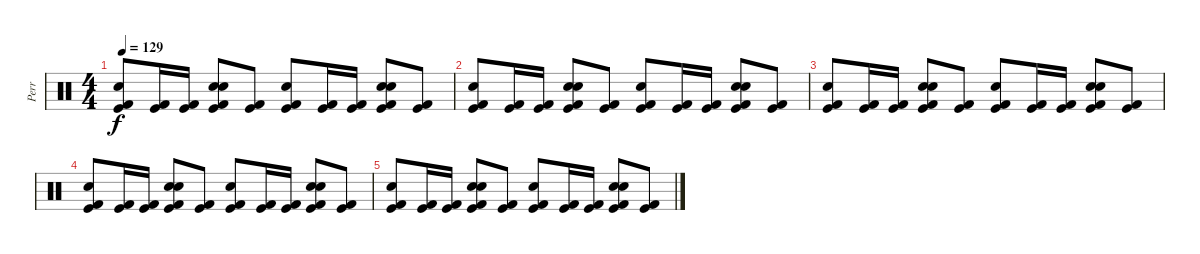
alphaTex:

\track ("Perr" "Perr") {instrument percussion}
\staff {score}
\articulation defaults
\ts (4 4)
\tempo 129
\clef neutral
\ks c
("Kick (hit) 2" "Kick (hit)" "Electric Snare (hit)").8{dy f} ("Kick (hit)" "Kick (hit) 2").16 ("Kick (hit)" "Kick (hit) 2").16 ("Kick (hit)" "Kick (hit) 2" "Hand Clap (hit)" "Electric Snare (hit)").8 ("Kick (hit) 2" "Kick (hit)").8 ("Kick (hit) 2" "Kick (hit)" "Electric Snare (hit)").8 ("Kick (hit)" "Kick (hit) 2").16 ("Kick (hit)" "Kick (hit) 2").16 ("Kick (hit)" "Kick (hit) 2" "Hand Clap (hit)" "Electric Snare (hit)").8 ("Kick (hit) 2" "Kick (hit)").8 |
("Kick (hit) 2" "Kick (hit)" "Electric Snare (hit)").8 ("Kick (hit)" "Kick (hit) 2").16 ("Kick (hit)" "Kick (hit) 2").16 ("Kick (hit)" "Kick (hit) 2" "Hand Clap (hit)" "Electric Snare (hit)").8 ("Kick (hit) 2" "Kick (hit)").8 ("Kick (hit) 2" "Kick (hit)" "Electric Snare (hit)").8 ("Kick (hit)" "Kick (hit) 2").16 ("Kick (hit)" "Kick (hit) 2").16 ("Kick (hit)" "Kick (hit) 2" "Hand Clap (hit)" "Electric Snare (hit)").8 ("Kick (hit) 2" "Kick (hit)").8 |
("Kick (hit) 2" "Kick (hit)" "Electric Snare (hit)").8 ("Kick (hit)" "Kick (hit) 2").16 ("Kick (hit)" "Kick (hit) 2").16 ("Kick (hit)" "Kick (hit) 2" "Hand Clap (hit)" "Electric Snare (hit)").8 ("Kick (hit) 2" "Kick (hit)").8 ("Kick (hit) 2" "Kick (hit)" "Electric Snare (hit)").8 ("Kick (hit)" "Kick (hit) 2").16 ("Kick (hit)" "Kick (hit) 2").16 ("Kick (hit)" "Kick (hit) 2" "Hand Clap (hit)" "Electric Snare (hit)").8 ("Kick (hit) 2" "Kick (hit)").8 |
("Kick (hit) 2" "Kick (hit)" "Electric Snare (hit)").8 ("Kick (hit)" "Kick (hit) 2").16 ("Kick (hit)" "Kick (hit) 2").16 ("Kick (hit)" "Kick (hit) 2" "Hand Clap (hit)" "Electric Snare (hit)").8 ("Kick (hit) 2" "Kick (hit)").8 ("Kick (hit) 2" "Kick (hit)" "Electric Snare (hit)").8 ("Kick (hit)" "Kick (hit) 2").16 ("Kick (hit)" "Kick (hit) 2").16 ("Kick (hit)" "Kick (hit) 2" "Hand Clap (hit)" "Electric Snare (hit)").8 ("Kick (hit) 2" "Kick (hit)").8 |
("Kick (hit) 2" "Kick (hit)" "Electric Snare (hit)").8 ("Kick (hit)" "Kick (hit) 2").16 ("Kick (hit)" "Kick (hit) 2").16 ("Kick (hit)" "Kick (hit) 2" "Hand Clap (hit)" "Electric Snare (hit)").8 ("Kick (hit) 2" "Kick (hit)").8 ("Kick (hit) 2" "Kick (hit)" "Electric Snare (hit)").8 ("Kick (hit)" "Kick (hit) 2").16 ("Kick (hit)" "Kick (hit) 2").16 ("Kick (hit)" "Kick (hit) 2" "Hand Clap (hit)" "Electric Snare (hit)").8 ("Kick (hit) 2" "Kick (hit)").8
